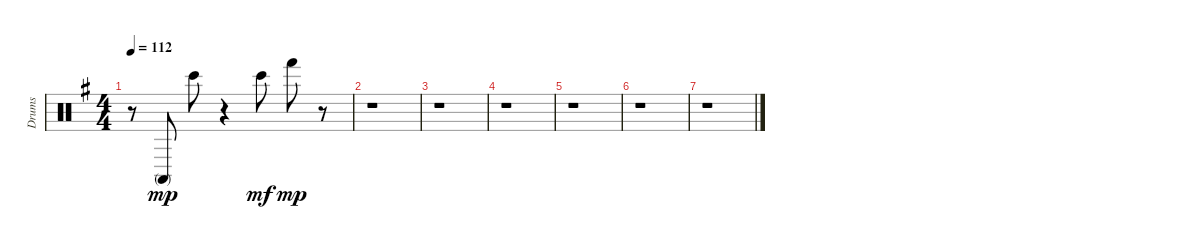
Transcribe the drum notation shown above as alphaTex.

\track ("Drums" "Drums") {instrument percussion}
\staff {score}
\articulation defaults
\ts (4 4)
\tempo 112
\clef neutral
\ks g
r.8{dy mp} "Conga high (mute)".8 "Bongo High (hit)".8 r.4 "Bongo High (hit)".8{dy mf} "Hand (hit)".8{dy mp} r.8 |
r.1 |
r.1 |
r.1 |
r.1 |
r.1 |
r.1
